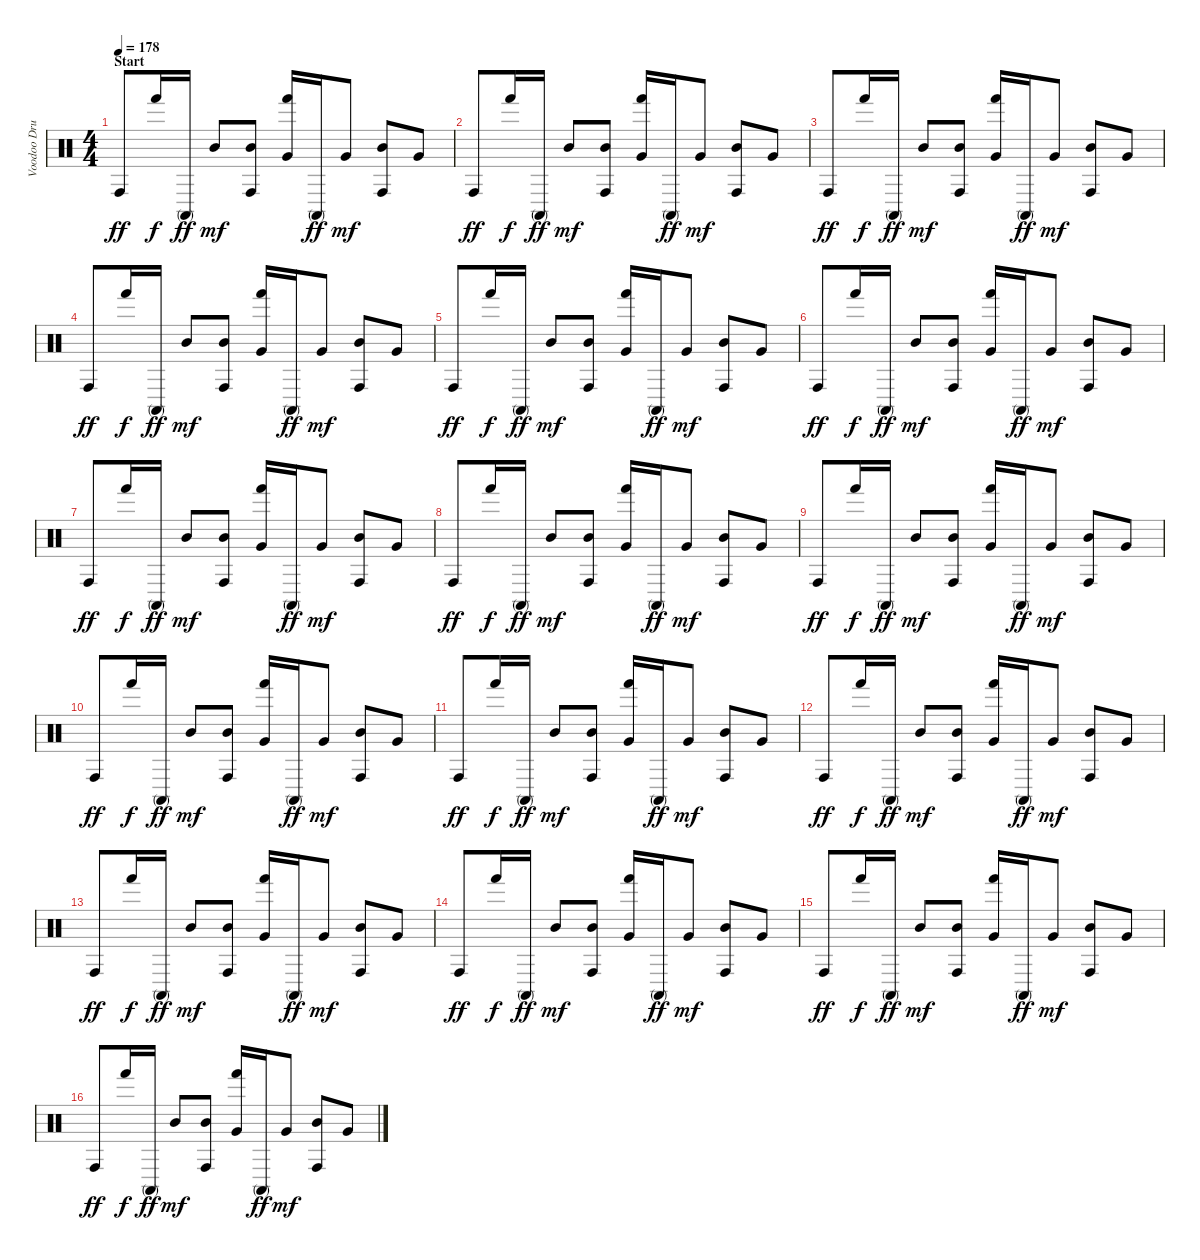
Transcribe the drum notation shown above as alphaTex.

\track ("Voodoo Drums" "Voodoo Dru") {instrument percussion}
\staff {score}
\articulation defaults
\ts (4 4)
\section ("" "Start")
\tempo 178
\clef neutral
\ks c "Conga high (hit)".8{dy ff} "Hand (hit)".16{dy f} "Conga high (mute)".16{dy ff} "Mid Tom (hit)".8{dy mf}
("Conga high (hit)" "Mid Tom (hit)").8 ("Hand (hit)" "Very Low Tom (hit)").16 "Conga high (mute)".16{dy ff} "Very Low Tom (hit)".8{dy mf} ("Conga high (hit)" "Mid Tom (hit)").8 "Very Low Tom (hit)".8 |
"Conga high (hit)".8{dy ff} "Hand (hit)".16{dy f} "Conga high (mute)".16{dy ff} "Mid Tom (hit)".8{dy mf} ("Conga high (hit)" "Mid Tom (hit)").8 ("Hand (hit)" "Very Low Tom (hit)").16 "Conga high (mute)".16{dy ff} "Very Low Tom (hit)".8{dy mf} ("Conga high (hit)" "Mid Tom (hit)").8 "Very Low Tom (hit)".8 |
"Conga high (hit)".8{dy ff} "Hand (hit)".16{dy f} "Conga high (mute)".16{dy ff} "Mid Tom (hit)".8{dy mf} ("Conga high (hit)" "Mid Tom (hit)").8 ("Hand (hit)" "Very Low Tom (hit)").16 "Conga high (mute)".16{dy ff} "Very Low Tom (hit)".8{dy mf} ("Conga high (hit)" "Mid Tom (hit)").8 "Very Low Tom (hit)".8 |
"Conga high (hit)".8{dy ff} "Hand (hit)".16{dy f} "Conga high (mute)".16{dy ff} "Mid Tom (hit)".8{dy mf} ("Conga high (hit)" "Mid Tom (hit)").8 ("Hand (hit)" "Very Low Tom (hit)").16 "Conga high (mute)".16{dy ff} "Very Low Tom (hit)".8{dy mf} ("Conga high (hit)" "Mid Tom (hit)").8 "Very Low Tom (hit)".8 |
"Conga high (hit)".8{dy ff} "Hand (hit)".16{dy f} "Conga high (mute)".16{dy ff} "Mid Tom (hit)".8{dy mf} ("Conga high (hit)" "Mid Tom (hit)").8 ("Hand (hit)" "Very Low Tom (hit)").16 "Conga high (mute)".16{dy ff} "Very Low Tom (hit)".8{dy mf} ("Conga high (hit)" "Mid Tom (hit)").8 "Very Low Tom (hit)".8 |
"Conga high (hit)".8{dy ff} "Hand (hit)".16{dy f} "Conga high (mute)".16{dy ff} "Mid Tom (hit)".8{dy mf} ("Conga high (hit)" "Mid Tom (hit)").8 ("Hand (hit)" "Very Low Tom (hit)").16 "Conga high (mute)".16{dy ff} "Very Low Tom (hit)".8{dy mf} ("Conga high (hit)" "Mid Tom (hit)").8 "Very Low Tom (hit)".8 |
"Conga high (hit)".8{dy ff} "Hand (hit)".16{dy f} "Conga high (mute)".16{dy ff} "Mid Tom (hit)".8{dy mf} ("Conga high (hit)" "Mid Tom (hit)").8 ("Hand (hit)" "Very Low Tom (hit)").16 "Conga high (mute)".16{dy ff} "Very Low Tom (hit)".8{dy mf} ("Conga high (hit)" "Mid Tom (hit)").8 "Very Low Tom (hit)".8 |
"Conga high (hit)".8{dy ff} "Hand (hit)".16{dy f} "Conga high (mute)".16{dy ff} "Mid Tom (hit)".8{dy mf} ("Conga high (hit)" "Mid Tom (hit)").8 ("Hand (hit)" "Very Low Tom (hit)").16 "Conga high (mute)".16{dy ff} "Very Low Tom (hit)".8{dy mf} ("Conga high (hit)" "Mid Tom (hit)").8 "Very Low Tom (hit)".8 |
"Conga high (hit)".8{dy ff} "Hand (hit)".16{dy f} "Conga high (mute)".16{dy ff} "Mid Tom (hit)".8{dy mf} ("Conga high (hit)" "Mid Tom (hit)").8 ("Hand (hit)" "Very Low Tom (hit)").16 "Conga high (mute)".16{dy ff} "Very Low Tom (hit)".8{dy mf} ("Conga high (hit)" "Mid Tom (hit)").8 "Very Low Tom (hit)".8 |
"Conga high (hit)".8{dy ff} "Hand (hit)".16{dy f} "Conga high (mute)".16{dy ff} "Mid Tom (hit)".8{dy mf} ("Conga high (hit)" "Mid Tom (hit)").8 ("Hand (hit)" "Very Low Tom (hit)").16 "Conga high (mute)".16{dy ff} "Very Low Tom (hit)".8{dy mf} ("Conga high (hit)" "Mid Tom (hit)").8 "Very Low Tom (hit)".8 |
"Conga high (hit)".8{dy ff} "Hand (hit)".16{dy f} "Conga high (mute)".16{dy ff} "Mid Tom (hit)".8{dy mf} ("Conga high (hit)" "Mid Tom (hit)").8 ("Hand (hit)" "Very Low Tom (hit)").16 "Conga high (mute)".16{dy ff} "Very Low Tom (hit)".8{dy mf} ("Conga high (hit)" "Mid Tom (hit)").8 "Very Low Tom (hit)".8 |
"Conga high (hit)".8{dy ff} "Hand (hit)".16{dy f} "Conga high (mute)".16{dy ff} "Mid Tom (hit)".8{dy mf} ("Conga high (hit)" "Mid Tom (hit)").8 ("Hand (hit)" "Very Low Tom (hit)").16 "Conga high (mute)".16{dy ff} "Very Low Tom (hit)".8{dy mf} ("Conga high (hit)" "Mid Tom (hit)").8 "Very Low Tom (hit)".8 |
"Conga high (hit)".8{dy ff} "Hand (hit)".16{dy f} "Conga high (mute)".16{dy ff} "Mid Tom (hit)".8{dy mf} ("Conga high (hit)" "Mid Tom (hit)").8 ("Hand (hit)" "Very Low Tom (hit)").16 "Conga high (mute)".16{dy ff} "Very Low Tom (hit)".8{dy mf} ("Conga high (hit)" "Mid Tom (hit)").8 "Very Low Tom (hit)".8 |
"Conga high (hit)".8{dy ff} "Hand (hit)".16{dy f} "Conga high (mute)".16{dy ff} "Mid Tom (hit)".8{dy mf} ("Conga high (hit)" "Mid Tom (hit)").8 ("Hand (hit)" "Very Low Tom (hit)").16 "Conga high (mute)".16{dy ff} "Very Low Tom (hit)".8{dy mf} ("Conga high (hit)" "Mid Tom (hit)").8 "Very Low Tom (hit)".8 |
"Conga high (hit)".8{dy ff} "Hand (hit)".16{dy f} "Conga high (mute)".16{dy ff} "Mid Tom (hit)".8{dy mf} ("Conga high (hit)" "Mid Tom (hit)").8 ("Hand (hit)" "Very Low Tom (hit)").16 "Conga high (mute)".16{dy ff} "Very Low Tom (hit)".8{dy mf} ("Conga high (hit)" "Mid Tom (hit)").8 "Very Low Tom (hit)".8 |
"Conga high (hit)".8{dy ff} "Hand (hit)".16{dy f} "Conga high (mute)".16{dy ff} "Mid Tom (hit)".8{dy mf} ("Conga high (hit)" "Mid Tom (hit)").8 ("Hand (hit)" "Very Low Tom (hit)").16 "Conga high (mute)".16{dy ff} "Very Low Tom (hit)".8{dy mf} ("Conga high (hit)" "Mid Tom (hit)").8 "Very Low Tom (hit)".8
